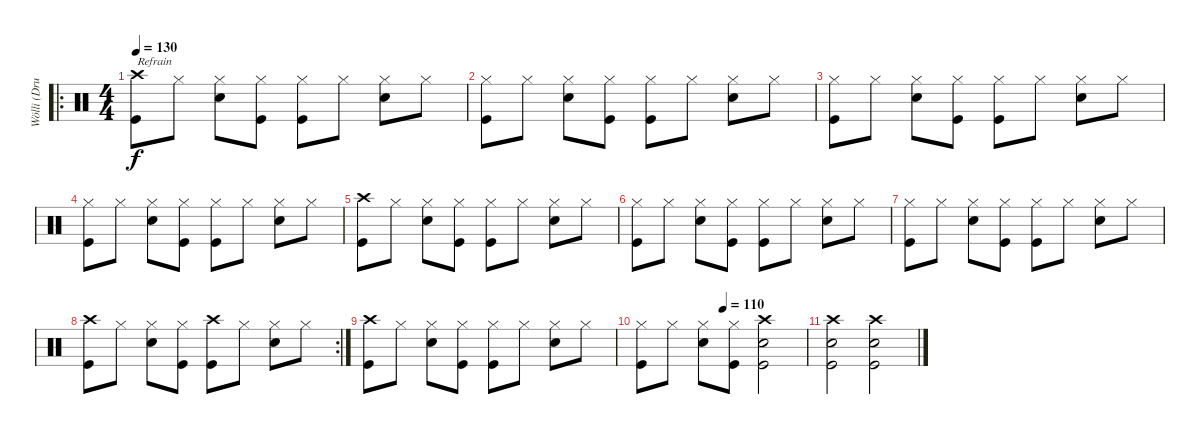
\track ("Wölli (Drums)" "Wölli (Dru") {instrument percussion}
\staff {score}
\articulation defaults
\ro
\ts (4 4)
\tempo 130
\clef neutral
\ks c
("Crash high (hit)" "Kick (hit)").8{txt "Refrain" dy f} "Hi-Hat (closed)".8 ("Hi-Hat (closed)" "Snare (hit) 2").8 ("Hi-Hat (closed)" "Kick (hit)").8 ("Hi-Hat (closed)" "Kick (hit)").8 "Hi-Hat (closed)".8 ("Hi-Hat (closed)" "Snare (hit) 2").8 "Hi-Hat (closed)".8 |
("Hi-Hat (closed)" "Kick (hit)").8 "Hi-Hat (closed)".8 ("Hi-Hat (closed)" "Snare (hit) 2").8 ("Hi-Hat (closed)" "Kick (hit)").8 ("Hi-Hat (closed)" "Kick (hit)").8 "Hi-Hat (closed)".8 ("Hi-Hat (closed)" "Snare (hit) 2").8 "Hi-Hat (closed)".8 |
("Hi-Hat (closed)" "Kick (hit)").8 "Hi-Hat (closed)".8 ("Hi-Hat (closed)" "Snare (hit) 2").8 ("Hi-Hat (closed)" "Kick (hit)").8 ("Hi-Hat (closed)" "Kick (hit)").8 "Hi-Hat (closed)".8 ("Hi-Hat (closed)" "Snare (hit) 2").8 "Hi-Hat (closed)".8 |
("Hi-Hat (closed)" "Kick (hit)").8 "Hi-Hat (closed)".8 ("Hi-Hat (closed)" "Snare (hit) 2").8 ("Hi-Hat (closed)" "Kick (hit)").8 ("Hi-Hat (closed)" "Kick (hit)").8 "Hi-Hat (closed)".8 ("Hi-Hat (closed)" "Snare (hit) 2").8 "Hi-Hat (closed)".8 |
("Crash high (hit)" "Kick (hit)").8 "Hi-Hat (closed)".8 ("Hi-Hat (closed)" "Snare (hit) 2").8 ("Hi-Hat (closed)" "Kick (hit)").8 ("Hi-Hat (closed)" "Kick (hit)").8 "Hi-Hat (closed)".8 ("Hi-Hat (closed)" "Snare (hit) 2").8 "Hi-Hat (closed)".8 |
("Hi-Hat (closed)" "Kick (hit)").8 "Hi-Hat (closed)".8 ("Hi-Hat (closed)" "Snare (hit) 2").8 ("Hi-Hat (closed)" "Kick (hit)").8 ("Hi-Hat (closed)" "Kick (hit)").8 "Hi-Hat (closed)".8 ("Hi-Hat (closed)" "Snare (hit) 2").8 "Hi-Hat (closed)".8 |
("Hi-Hat (closed)" "Kick (hit)").8 "Hi-Hat (closed)".8 ("Hi-Hat (closed)" "Snare (hit) 2").8 ("Hi-Hat (closed)" "Kick (hit)").8 ("Hi-Hat (closed)" "Kick (hit)").8 "Hi-Hat (closed)".8 ("Hi-Hat (closed)" "Snare (hit) 2").8 "Hi-Hat (closed)".8 |
\rc 2
("Crash high (hit)" "Kick (hit)").8 "Hi-Hat (closed)".8 ("Hi-Hat (closed)" "Snare (hit) 2").8 ("Hi-Hat (closed)" "Kick (hit)").8 ("Crash high (hit)" "Kick (hit)").8 "Hi-Hat (closed)".8 ("Hi-Hat (closed)" "Snare (hit) 2").8 "Hi-Hat (closed)".8 |
("Crash high (hit)" "Kick (hit)").8 "Hi-Hat (closed)".8 ("Hi-Hat (closed)" "Snare (hit) 2").8 ("Hi-Hat (closed)" "Kick (hit)").8 ("Hi-Hat (closed)" "Kick (hit)").8 "Hi-Hat (closed)".8 ("Hi-Hat (closed)" "Snare (hit) 2").8 "Hi-Hat (closed)".8 |
\tempo (110 0.5)
("Hi-Hat (closed)" "Kick (hit)").8 "Hi-Hat (closed)".8 ("Hi-Hat (closed)" "Snare (hit) 2").8 ("Hi-Hat (closed)" "Kick (hit)").8 ("Crash high (hit)" "Snare (hit) 2" "Kick (hit)").2 |
("Crash high (hit)" "Snare (hit) 2" "Kick (hit)").2 ("Crash high (hit)" "Snare (hit) 2" "Kick (hit)").2
